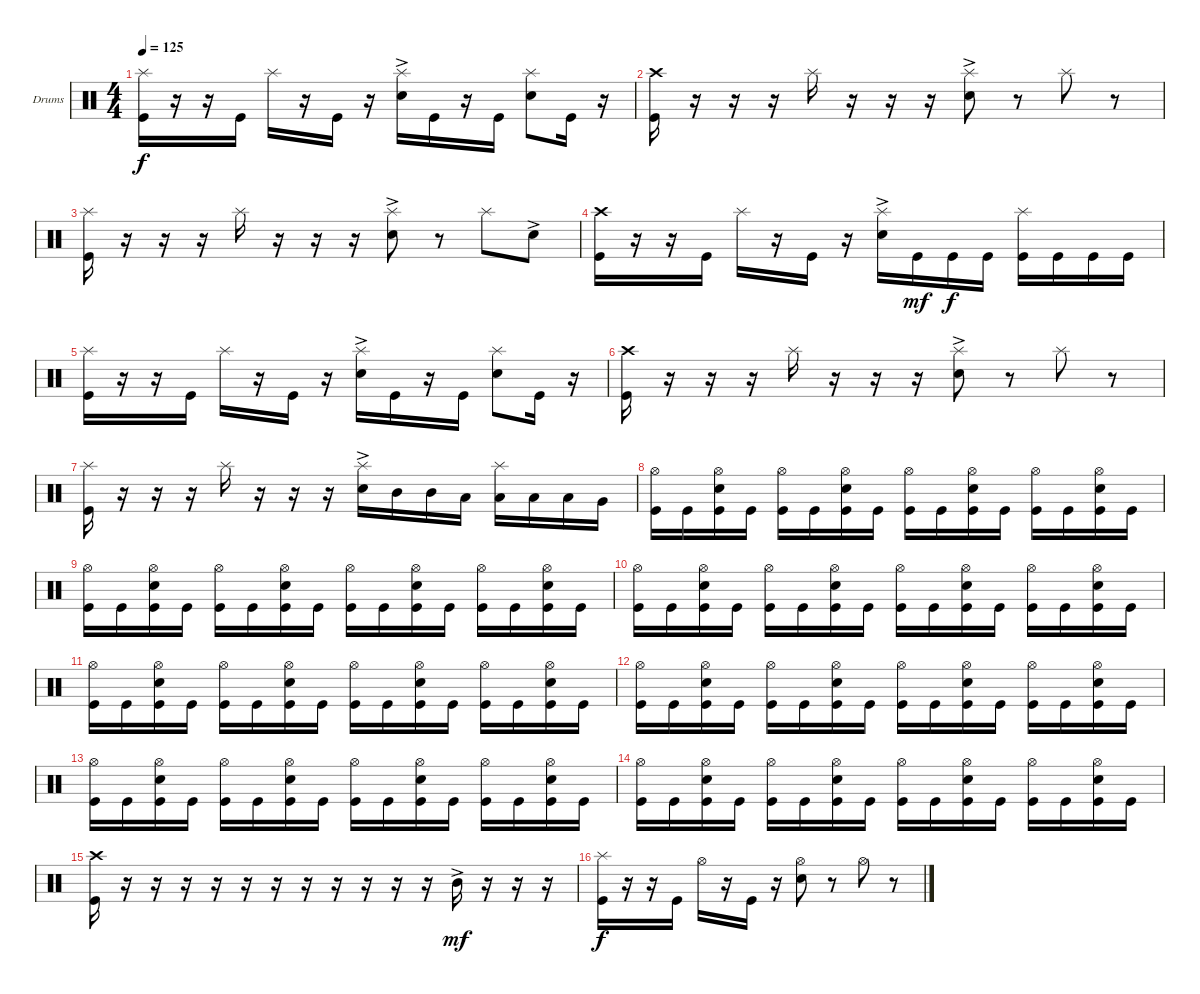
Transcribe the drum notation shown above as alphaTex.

\defaultSystemsLayout 4
\bracketExtendMode groupsimilarinstruments
\firstSystemTrackNameOrientation horizontal
\otherSystemsTrackNameOrientation horizontal
\track ("Drumkit" "Drums") {instrument percussion}
\staff {score}
\articulation defaults
\ts (4 4)
\tempo 125
\clef neutral
\ks c
("Kick (hit)" "Splash (hit)").16{dy f} r.16 r.16 "Kick (hit)".16 "Splash (hit)".16 r.16 "Kick (hit)".16 r.16 ("Snare (hit) 2"{ac} "Splash (hit)").16 "Kick (hit)".16 r.16 "Kick (hit)".16 ("Snare (hit) 2" "Splash (hit)").8 "Kick (hit)".16 r.16 |
("Kick (hit)" "Crash high (hit)").16 r.16 r.16 r.16 "Splash (hit)".16 r.16 r.16 r.16 ("Snare (hit) 2"{ac} "Splash (hit)").8 r.8 "Splash (hit)".8 r.8 |
("Kick (hit)" "Splash (hit)").16 r.16 r.16 r.16 "Splash (hit)".16 r.16 r.16 r.16 ("Snare (hit) 2"{ac} "Splash (hit)").8 r.8 "Splash (hit)".8 "Snare (hit) 2"{ac}.8 |
("Kick (hit)" "Crash high (hit)").16 r.16 r.16 "Kick (hit)".16 "Splash (hit)".16 r.16 "Kick (hit)".16 r.16 ("Snare (hit) 2"{ac} "Splash (hit)").16 "Kick (hit)".16{dy mf} "Kick (hit)".16{dy f} "Kick (hit)".16 ("Kick (hit)" "Splash (hit)").16 "Kick (hit)".16 "Kick (hit)".16 "Kick (hit)".16 |
("Kick (hit)" "Splash (hit)").16 r.16 r.16 "Kick (hit)".16 "Splash (hit)".16 r.16 "Kick (hit)".16 r.16 ("Snare (hit) 2"{ac} "Splash (hit)").16 "Kick (hit)".16 r.16 "Kick (hit)".16 ("Snare (hit) 2" "Splash (hit)").8 "Kick (hit)".16 r.16 |
("Kick (hit)" "Crash high (hit)").16 r.16 r.16 r.16 "Splash (hit)".16 r.16 r.16 r.16 ("Snare (hit) 2"{ac} "Splash (hit)").8 r.8 "Splash (hit)".8 r.8 |
("Kick (hit)" "Splash (hit)").16 r.16 r.16 r.16 "Splash (hit)".16 r.16 r.16 r.16 ("Snare (hit) 2"{ac} "Splash (hit)").16 "Mid Tom (hit)".16 "Mid Tom (hit)".16 "Low Tom (hit)".16 ("Low Tom (hit)" "Splash (hit)").16 "Low Tom (hit)".16 "Low Tom (hit)".16 "Very Low Tom (hit)".16 |
("Kick (hit)" "Hi-Hat (open)").16 "Kick (hit)".16 ("Kick (hit)" "Snare (hit) 2" "Hi-Hat (open)").16 "Kick (hit)".16 ("Kick (hit)" "Hi-Hat (open)").16 "Kick (hit)".16 ("Kick (hit)" "Snare (hit) 2" "Hi-Hat (open)").16 "Kick (hit)".16 ("Kick (hit)" "Hi-Hat (open)").16 "Kick (hit)".16 ("Kick (hit)" "Snare (hit) 2" "Hi-Hat (open)").16 "Kick (hit)".16 ("Kick (hit)" "Hi-Hat (open)").16 "Kick (hit)".16 ("Kick (hit)" "Snare (hit) 2" "Hi-Hat (open)").16 "Kick (hit)".16 |
("Kick (hit)" "Hi-Hat (open)").16 "Kick (hit)".16 ("Kick (hit)" "Snare (hit) 2" "Hi-Hat (open)").16 "Kick (hit)".16 ("Kick (hit)" "Hi-Hat (open)").16 "Kick (hit)".16 ("Kick (hit)" "Snare (hit) 2" "Hi-Hat (open)").16 "Kick (hit)".16 ("Kick (hit)" "Hi-Hat (open)").16 "Kick (hit)".16 ("Kick (hit)" "Snare (hit) 2" "Hi-Hat (open)").16 "Kick (hit)".16 ("Kick (hit)" "Hi-Hat (open)").16 "Kick (hit)".16 ("Kick (hit)" "Snare (hit) 2" "Hi-Hat (open)").16 "Kick (hit)".16 |
("Kick (hit)" "Hi-Hat (open)").16 "Kick (hit)".16 ("Kick (hit)" "Snare (hit) 2" "Hi-Hat (open)").16 "Kick (hit)".16 ("Kick (hit)" "Hi-Hat (open)").16 "Kick (hit)".16 ("Kick (hit)" "Snare (hit) 2" "Hi-Hat (open)").16 "Kick (hit)".16 ("Kick (hit)" "Hi-Hat (open)").16 "Kick (hit)".16 ("Kick (hit)" "Snare (hit) 2" "Hi-Hat (open)").16 "Kick (hit)".16 ("Kick (hit)" "Hi-Hat (open)").16 "Kick (hit)".16 ("Kick (hit)" "Snare (hit) 2" "Hi-Hat (open)").16 "Kick (hit)".16 |
("Kick (hit)" "Hi-Hat (open)").16 "Kick (hit)".16 ("Kick (hit)" "Snare (hit) 2" "Hi-Hat (open)").16 "Kick (hit)".16 ("Kick (hit)" "Hi-Hat (open)").16 "Kick (hit)".16 ("Kick (hit)" "Snare (hit) 2" "Hi-Hat (open)").16 "Kick (hit)".16 ("Kick (hit)" "Hi-Hat (open)").16 "Kick (hit)".16 ("Kick (hit)" "Snare (hit) 2" "Hi-Hat (open)").16 "Kick (hit)".16 ("Kick (hit)" "Hi-Hat (open)").16 "Kick (hit)".16 ("Kick (hit)" "Snare (hit) 2" "Hi-Hat (open)").16 "Kick (hit)".16 |
("Kick (hit)" "Hi-Hat (open)").16 "Kick (hit)".16 ("Kick (hit)" "Snare (hit) 2" "Hi-Hat (open)").16 "Kick (hit)".16 ("Kick (hit)" "Hi-Hat (open)").16 "Kick (hit)".16 ("Kick (hit)" "Snare (hit) 2" "Hi-Hat (open)").16 "Kick (hit)".16 ("Kick (hit)" "Hi-Hat (open)").16 "Kick (hit)".16 ("Kick (hit)" "Snare (hit) 2" "Hi-Hat (open)").16 "Kick (hit)".16 ("Kick (hit)" "Hi-Hat (open)").16 "Kick (hit)".16 ("Kick (hit)" "Snare (hit) 2" "Hi-Hat (open)").16 "Kick (hit)".16 |
("Kick (hit)" "Hi-Hat (open)").16 "Kick (hit)".16 ("Kick (hit)" "Snare (hit) 2" "Hi-Hat (open)").16 "Kick (hit)".16 ("Kick (hit)" "Hi-Hat (open)").16 "Kick (hit)".16 ("Kick (hit)" "Snare (hit) 2" "Hi-Hat (open)").16 "Kick (hit)".16 ("Kick (hit)" "Hi-Hat (open)").16 "Kick (hit)".16 ("Kick (hit)" "Snare (hit) 2" "Hi-Hat (open)").16 "Kick (hit)".16 ("Kick (hit)" "Hi-Hat (open)").16 "Kick (hit)".16 ("Kick (hit)" "Snare (hit) 2" "Hi-Hat (open)").16 "Kick (hit)".16 |
("Kick (hit)" "Hi-Hat (open)").16 "Kick (hit)".16 ("Kick (hit)" "Snare (hit) 2" "Hi-Hat (open)").16 "Kick (hit)".16 ("Kick (hit)" "Hi-Hat (open)").16 "Kick (hit)".16 ("Kick (hit)" "Snare (hit) 2" "Hi-Hat (open)").16 "Kick (hit)".16 ("Kick (hit)" "Hi-Hat (open)").16 "Kick (hit)".16 ("Kick (hit)" "Snare (hit) 2" "Hi-Hat (open)").16 "Kick (hit)".16 ("Kick (hit)" "Hi-Hat (open)").16 "Kick (hit)".16 ("Kick (hit)" "Snare (hit) 2" "Hi-Hat (open)").16 "Kick (hit)".16 |
("Kick (hit)" "Crash high (hit)").16 r.16 r.16 r.16 r.16 r.16 r.16 r.16 r.16 r.16 r.16 r.16 "Mid Tom (hit)"{ac}.16{dy mf} r.16 r.16 r.16 |
("Kick (hit)" "Splash (hit)").16{dy f} r.16 r.16 "Kick (hit)".16 "Hi-Hat (open)".16 r.16 "Kick (hit)".16 r.16 ("Snare (hit) 2" "Hi-Hat (open)").8 r.8 "Hi-Hat (open)".8 r.8
